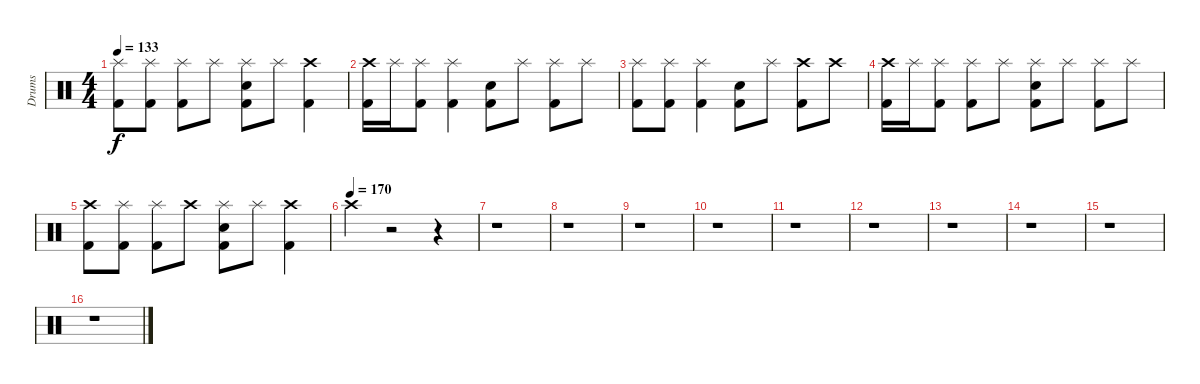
\track ("Drums" "Drums") {instrument percussion}
\staff {score}
\articulation defaults
\ts (4 4)
\tempo 133
\clef neutral
\ks c
("Kick (hit) 2" "Splash (hit)").8{dy f} ("Kick (hit) 2" "Splash (hit)").8 ("Kick (hit) 2" "Splash (hit)").8 "Splash (hit)".8 ("Kick (hit) 2" "Snare (hit) 2" "Splash (hit)").8 "Splash (hit)".8 ("Kick (hit) 2" "Crash high (hit)").4 |
("Kick (hit) 2" "Crash high (hit)").16 "Splash (hit)".16 ("Kick (hit) 2" "Splash (hit)").8 ("Kick (hit) 2" "Splash (hit)").4 ("Kick (hit) 2" "Snare (hit) 2").8 "Splash (hit)".8 ("Kick (hit) 2" "Splash (hit)").8 "Splash (hit)".8 |
("Kick (hit) 2" "Splash (hit)").8 ("Kick (hit) 2" "Splash (hit)").8 ("Kick (hit) 2" "Splash (hit)").4 ("Kick (hit) 2" "Snare (hit) 2").8 "Splash (hit)".8 ("Kick (hit) 2" "Crash high (hit)").8 "Crash high (hit)".8 |
("Kick (hit) 2" "Crash high (hit)").16 "Splash (hit)".16 ("Kick (hit) 2" "Splash (hit)").8 ("Kick (hit) 2" "Splash (hit)").8 "Splash (hit)".8 ("Kick (hit) 2" "Snare (hit) 2" "Splash (hit)").8 "Splash (hit)".8 ("Kick (hit) 2" "Splash (hit)").8 "Splash (hit)".8 |
("Kick (hit) 2" "Crash high (hit)").8 ("Kick (hit) 2" "Splash (hit)").8 ("Kick (hit) 2" "Splash (hit)").8 "Crash high (hit)".8 ("Kick (hit) 2" "Snare (hit) 2" "Splash (hit)").8 "Splash (hit)".8 ("Kick (hit) 2" "Crash high (hit)").4 |
\tempo (170)
"Crash high (hit)".4 r.2 r.4 |
r.1 |
r.1 |
r.1 |
r.1 |
r.1 |
r.1 |
r.1 |
r.1 |
r.1 |
r.1
